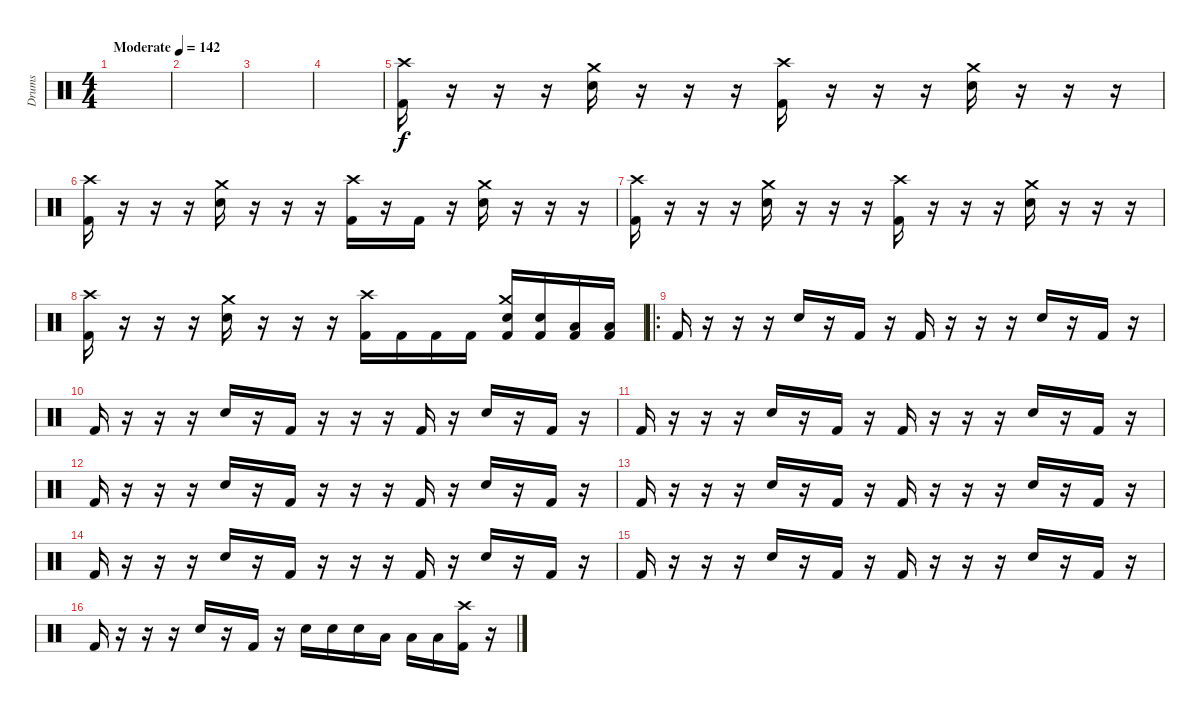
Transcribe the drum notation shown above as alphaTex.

\track ("Drums" "Drums") {instrument percussion}
\staff {score}
\articulation defaults
\ts (4 4)
\tempo (142 "Moderate")
\clef neutral
\ks c
|
|
|
|
("Crash high (hit)" "Kick (hit) 2").16 r.16 r.16 r.16 ("Crash medium (hit)" "Electric Snare (hit)").16 r.16 r.16 r.16 ("Crash high (hit)" "Kick (hit) 2").16 r.16 r.16 r.16 ("Crash medium (hit)" "Electric Snare (hit)").16 r.16 r.16 r.16 |
("Crash high (hit)" "Kick (hit) 2").16 r.16 r.16 r.16 ("Crash medium (hit)" "Electric Snare (hit)").16 r.16 r.16 r.16 ("Crash high (hit)" "Kick (hit) 2").16 r.16 "Kick (hit) 2".16 r.16 ("Crash medium (hit)" "Electric Snare (hit)").16 r.16 r.16 r.16 |
("Crash high (hit)" "Kick (hit) 2").16 r.16 r.16 r.16 ("Crash medium (hit)" "Electric Snare (hit)").16 r.16 r.16 r.16 ("Crash high (hit)" "Kick (hit) 2").16 r.16 r.16 r.16 ("Crash medium (hit)" "Electric Snare (hit)").16 r.16 r.16 r.16 |
("Crash high (hit)" "Kick (hit) 2").16 r.16 r.16 r.16 ("Crash medium (hit)" "Electric Snare (hit)").16 r.16 r.16 r.16 ("Crash high (hit)" "Kick (hit) 2").16 "Kick (hit) 2".16 "Kick (hit) 2".16 "Kick (hit) 2".16 ("Crash medium (hit)" "Electric Snare (hit)" "Kick (hit) 2").16 ("Electric Snare (hit)" "Kick (hit) 2").16 ("Low Tom (hit)" "Kick (hit) 2").16 ("Low Tom (hit)" "Kick (hit) 2").16 |
\ro "Kick (hit) 2".16
r.16 r.16 r.16 "Electric Snare (hit)".16 r.16 "Kick (hit) 2".16 r.16 "Kick (hit) 2".16 r.16 r.16 r.16 "Electric Snare (hit)".16 r.16 "Kick (hit) 2".16 r.16 |
"Kick (hit) 2".16 r.16 r.16 r.16 "Electric Snare (hit)".16 r.16 "Kick (hit) 2".16 r.16 r.16 r.16 "Kick (hit) 2".16 r.16 "Electric Snare (hit)".16 r.16 "Kick (hit) 2".16 r.16 |
"Kick (hit) 2".16 r.16 r.16 r.16 "Electric Snare (hit)".16 r.16 "Kick (hit) 2".16 r.16 "Kick (hit) 2".16 r.16 r.16 r.16 "Electric Snare (hit)".16 r.16 "Kick (hit) 2".16 r.16 |
"Kick (hit) 2".16 r.16 r.16 r.16 "Electric Snare (hit)".16 r.16 "Kick (hit) 2".16 r.16 r.16 r.16 "Kick (hit) 2".16 r.16 "Electric Snare (hit)".16 r.16 "Kick (hit) 2".16 r.16 |
"Kick (hit) 2".16 r.16 r.16 r.16 "Electric Snare (hit)".16 r.16 "Kick (hit) 2".16 r.16 "Kick (hit) 2".16 r.16 r.16 r.16 "Electric Snare (hit)".16 r.16 "Kick (hit) 2".16 r.16 |
"Kick (hit) 2".16 r.16 r.16 r.16 "Electric Snare (hit)".16 r.16 "Kick (hit) 2".16 r.16 r.16 r.16 "Kick (hit) 2".16 r.16 "Electric Snare (hit)".16 r.16 "Kick (hit) 2".16 r.16 |
"Kick (hit) 2".16 r.16 r.16 r.16 "Electric Snare (hit)".16 r.16 "Kick (hit) 2".16 r.16 "Kick (hit) 2".16 r.16 r.16 r.16 "Electric Snare (hit)".16 r.16 "Kick (hit) 2".16 r.16 |
"Kick (hit) 2".16 r.16 r.16 r.16 "Electric Snare (hit)".16 r.16 "Kick (hit) 2".16 r.16 "Electric Snare (hit)".16 "Electric Snare (hit)".16 "Electric Snare (hit)".16 "Low Tom (hit)".16 "Low Tom (hit)".16 "Low Tom (hit)".16 ("Crash high (hit)" "Kick (hit) 2").16 r.16
